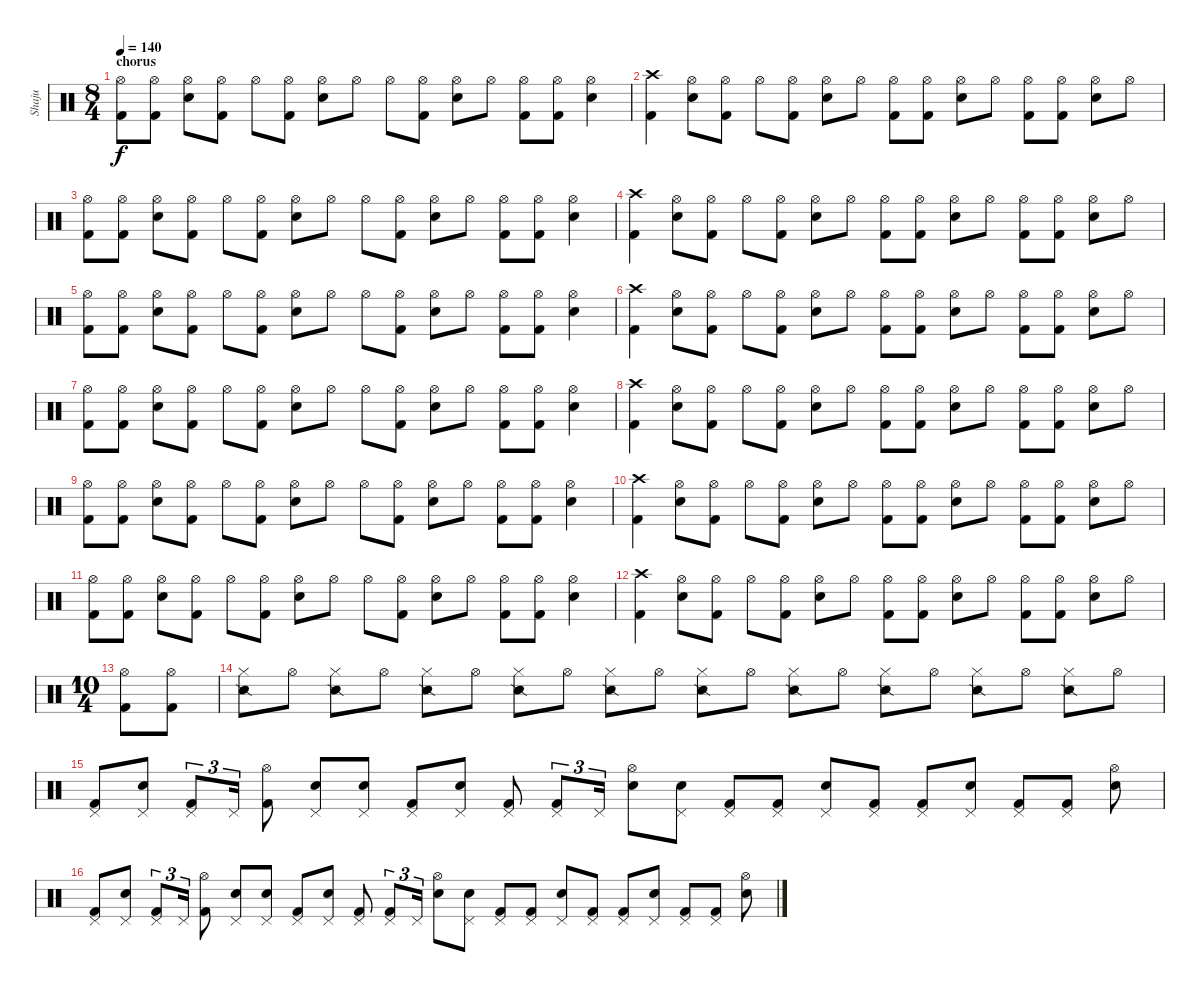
\track ("Shaju" "Shaju") {instrument percussion}
\staff {score}
\articulation defaults
\ts (8 4)
\section ("" "chorus")
\tempo 140
\clef neutral
\ks c
("Hi-Hat (open)" "Kick (hit) 2").8{dy f} ("Hi-Hat (open)" "Kick (hit) 2").8 ("Hi-Hat (open)" "Snare (hit) 2").8 ("Hi-Hat (open)" "Kick (hit) 2").8 "Hi-Hat (open)".8 ("Hi-Hat (open)" "Kick (hit) 2").8 ("Hi-Hat (open)" "Snare (hit) 2").8 "Hi-Hat (open)".8 "Hi-Hat (open)".8 ("Hi-Hat (open)" "Kick (hit) 2").8 ("Hi-Hat (open)" "Snare (hit) 2").8 "Hi-Hat (open)".8 ("Hi-Hat (open)" "Kick (hit) 2").8 ("Hi-Hat (open)" "Kick (hit) 2").8 ("Hi-Hat (open)" "Snare (hit) 2").4 |
("Crash high (hit)" "Kick (hit) 2").4 ("Hi-Hat (open)" "Snare (hit) 2").8 ("Hi-Hat (open)" "Kick (hit) 2").8 "Hi-Hat (open)".8 ("Hi-Hat (open)" "Kick (hit) 2").8 ("Hi-Hat (open)" "Snare (hit) 2").8 "Hi-Hat (open)".8 ("Hi-Hat (open)" "Kick (hit) 2").8 ("Hi-Hat (open)" "Kick (hit) 2").8 ("Hi-Hat (open)" "Snare (hit) 2").8 "Hi-Hat (open)".8 ("Hi-Hat (open)" "Kick (hit) 2").8 ("Hi-Hat (open)" "Kick (hit) 2").8 ("Hi-Hat (open)" "Snare (hit) 2").8 "Hi-Hat (open)".8 |
("Hi-Hat (open)" "Kick (hit) 2").8 ("Hi-Hat (open)" "Kick (hit) 2").8 ("Hi-Hat (open)" "Snare (hit) 2").8 ("Hi-Hat (open)" "Kick (hit) 2").8 "Hi-Hat (open)".8 ("Hi-Hat (open)" "Kick (hit) 2").8 ("Hi-Hat (open)" "Snare (hit) 2").8 "Hi-Hat (open)".8 "Hi-Hat (open)".8 ("Hi-Hat (open)" "Kick (hit) 2").8 ("Hi-Hat (open)" "Snare (hit) 2").8 "Hi-Hat (open)".8 ("Hi-Hat (open)" "Kick (hit) 2").8 ("Hi-Hat (open)" "Kick (hit) 2").8 ("Hi-Hat (open)" "Snare (hit) 2").4 |
("Crash high (hit)" "Kick (hit) 2").4 ("Hi-Hat (open)" "Snare (hit) 2").8 ("Hi-Hat (open)" "Kick (hit) 2").8 "Hi-Hat (open)".8 ("Hi-Hat (open)" "Kick (hit) 2").8 ("Hi-Hat (open)" "Snare (hit) 2").8 "Hi-Hat (open)".8 ("Hi-Hat (open)" "Kick (hit) 2").8 ("Hi-Hat (open)" "Kick (hit) 2").8 ("Hi-Hat (open)" "Snare (hit) 2").8 "Hi-Hat (open)".8 ("Hi-Hat (open)" "Kick (hit) 2").8 ("Hi-Hat (open)" "Kick (hit) 2").8 ("Hi-Hat (open)" "Snare (hit) 2").8 "Hi-Hat (open)".8 |
("Hi-Hat (open)" "Kick (hit) 2").8 ("Hi-Hat (open)" "Kick (hit) 2").8 ("Hi-Hat (open)" "Snare (hit) 2").8 ("Hi-Hat (open)" "Kick (hit) 2").8 "Hi-Hat (open)".8 ("Hi-Hat (open)" "Kick (hit) 2").8 ("Hi-Hat (open)" "Snare (hit) 2").8 "Hi-Hat (open)".8 "Hi-Hat (open)".8 ("Hi-Hat (open)" "Kick (hit) 2").8 ("Hi-Hat (open)" "Snare (hit) 2").8 "Hi-Hat (open)".8 ("Hi-Hat (open)" "Kick (hit) 2").8 ("Hi-Hat (open)" "Kick (hit) 2").8 ("Hi-Hat (open)" "Snare (hit) 2").4 |
("Crash high (hit)" "Kick (hit) 2").4 ("Hi-Hat (open)" "Snare (hit) 2").8 ("Hi-Hat (open)" "Kick (hit) 2").8 "Hi-Hat (open)".8 ("Hi-Hat (open)" "Kick (hit) 2").8 ("Hi-Hat (open)" "Snare (hit) 2").8 "Hi-Hat (open)".8 ("Hi-Hat (open)" "Kick (hit) 2").8 ("Hi-Hat (open)" "Kick (hit) 2").8 ("Hi-Hat (open)" "Snare (hit) 2").8 "Hi-Hat (open)".8 ("Hi-Hat (open)" "Kick (hit) 2").8 ("Hi-Hat (open)" "Kick (hit) 2").8 ("Hi-Hat (open)" "Snare (hit) 2").8 "Hi-Hat (open)".8 |
("Hi-Hat (open)" "Kick (hit) 2").8 ("Hi-Hat (open)" "Kick (hit) 2").8 ("Hi-Hat (open)" "Snare (hit) 2").8 ("Hi-Hat (open)" "Kick (hit) 2").8 "Hi-Hat (open)".8 ("Hi-Hat (open)" "Kick (hit) 2").8 ("Hi-Hat (open)" "Snare (hit) 2").8 "Hi-Hat (open)".8 "Hi-Hat (open)".8 ("Hi-Hat (open)" "Kick (hit) 2").8 ("Hi-Hat (open)" "Snare (hit) 2").8 "Hi-Hat (open)".8 ("Hi-Hat (open)" "Kick (hit) 2").8 ("Hi-Hat (open)" "Kick (hit) 2").8 ("Hi-Hat (open)" "Snare (hit) 2").4 |
("Crash high (hit)" "Kick (hit) 2").4 ("Hi-Hat (open)" "Snare (hit) 2").8 ("Hi-Hat (open)" "Kick (hit) 2").8 "Hi-Hat (open)".8 ("Hi-Hat (open)" "Kick (hit) 2").8 ("Hi-Hat (open)" "Snare (hit) 2").8 "Hi-Hat (open)".8 ("Hi-Hat (open)" "Kick (hit) 2").8 ("Hi-Hat (open)" "Kick (hit) 2").8 ("Hi-Hat (open)" "Snare (hit) 2").8 "Hi-Hat (open)".8 ("Hi-Hat (open)" "Kick (hit) 2").8 ("Hi-Hat (open)" "Kick (hit) 2").8 ("Hi-Hat (open)" "Snare (hit) 2").8 "Hi-Hat (open)".8 |
("Hi-Hat (open)" "Kick (hit) 2").8 ("Hi-Hat (open)" "Kick (hit) 2").8 ("Hi-Hat (open)" "Snare (hit) 2").8 ("Hi-Hat (open)" "Kick (hit) 2").8 "Hi-Hat (open)".8 ("Hi-Hat (open)" "Kick (hit) 2").8 ("Hi-Hat (open)" "Snare (hit) 2").8 "Hi-Hat (open)".8 "Hi-Hat (open)".8 ("Hi-Hat (open)" "Kick (hit) 2").8 ("Hi-Hat (open)" "Snare (hit) 2").8 "Hi-Hat (open)".8 ("Hi-Hat (open)" "Kick (hit) 2").8 ("Hi-Hat (open)" "Kick (hit) 2").8 ("Hi-Hat (open)" "Snare (hit) 2").4 |
("Crash high (hit)" "Kick (hit) 2").4 ("Hi-Hat (open)" "Snare (hit) 2").8 ("Hi-Hat (open)" "Kick (hit) 2").8 "Hi-Hat (open)".8 ("Hi-Hat (open)" "Kick (hit) 2").8 ("Hi-Hat (open)" "Snare (hit) 2").8 "Hi-Hat (open)".8 ("Hi-Hat (open)" "Kick (hit) 2").8 ("Hi-Hat (open)" "Kick (hit) 2").8 ("Hi-Hat (open)" "Snare (hit) 2").8 "Hi-Hat (open)".8 ("Hi-Hat (open)" "Kick (hit) 2").8 ("Hi-Hat (open)" "Kick (hit) 2").8 ("Hi-Hat (open)" "Snare (hit) 2").8 "Hi-Hat (open)".8 |
("Hi-Hat (open)" "Kick (hit) 2").8 ("Hi-Hat (open)" "Kick (hit) 2").8 ("Hi-Hat (open)" "Snare (hit) 2").8 ("Hi-Hat (open)" "Kick (hit) 2").8 "Hi-Hat (open)".8 ("Hi-Hat (open)" "Kick (hit) 2").8 ("Hi-Hat (open)" "Snare (hit) 2").8 "Hi-Hat (open)".8 "Hi-Hat (open)".8 ("Hi-Hat (open)" "Kick (hit) 2").8 ("Hi-Hat (open)" "Snare (hit) 2").8 "Hi-Hat (open)".8 ("Hi-Hat (open)" "Kick (hit) 2").8 ("Hi-Hat (open)" "Kick (hit) 2").8 ("Hi-Hat (open)" "Snare (hit) 2").4 |
("Crash high (hit)" "Kick (hit) 2").4 ("Hi-Hat (open)" "Snare (hit) 2").8 ("Hi-Hat (open)" "Kick (hit) 2").8 "Hi-Hat (open)".8 ("Hi-Hat (open)" "Kick (hit) 2").8 ("Hi-Hat (open)" "Snare (hit) 2").8 "Hi-Hat (open)".8 ("Hi-Hat (open)" "Kick (hit) 2").8 ("Hi-Hat (open)" "Kick (hit) 2").8 ("Hi-Hat (open)" "Snare (hit) 2").8 "Hi-Hat (open)".8 ("Hi-Hat (open)" "Kick (hit) 2").8 ("Hi-Hat (open)" "Kick (hit) 2").8 ("Hi-Hat (open)" "Snare (hit) 2").8 "Hi-Hat (open)".8 |
\ts (10 4)
("Hi-Hat (open)" "Kick (hit) 2").8 ("Hi-Hat (open)" "Kick (hit) 2").8 |
("Hi-Hat (closed)" "Snare (side stick) 2").8 "Hi-Hat (open)".8 ("Hi-Hat (closed)" "Snare (side stick) 2").8 "Hi-Hat (open)".8 ("Hi-Hat (closed)" "Snare (side stick) 2").8 "Hi-Hat (open)".8 ("Hi-Hat (closed)" "Snare (side stick) 2").8 "Hi-Hat (open)".8 ("Hi-Hat (closed)" "Snare (side stick) 2").8 "Hi-Hat (open)".8 ("Hi-Hat (closed)" "Snare (side stick) 2").8 "Hi-Hat (open)".8 ("Hi-Hat (closed)" "Snare (side stick) 2").8 "Hi-Hat (open)".8 ("Hi-Hat (closed)" "Snare (side stick) 2").8 "Hi-Hat (open)".8 ("Hi-Hat (closed)" "Snare (side stick) 2").8 "Hi-Hat (open)".8 ("Hi-Hat (closed)" "Snare (side stick) 2").8 "Hi-Hat (open)".8 |
("Pedal Hi-Hat (hit)" "Kick (hit) 2").8 ("Pedal Hi-Hat (hit)" "Snare (hit) 2").8 ("Pedal Hi-Hat (hit)" "Kick (hit) 2").8{tu (3 2)} "Pedal Hi-Hat (hit)".16{tu (3 2)} ("Hi-Hat (open)" "Kick (hit) 2").8 ("Pedal Hi-Hat (hit)" "Snare (hit) 2").8 ("Pedal Hi-Hat (hit)" "Snare (hit) 2").8 ("Pedal Hi-Hat (hit)" "Kick (hit) 2").8 ("Pedal Hi-Hat (hit)" "Snare (hit) 2").8 ("Pedal Hi-Hat (hit)" "Kick (hit) 2").8 ("Pedal Hi-Hat (hit)" "Kick (hit) 2").8{tu (3 2)} "Pedal Hi-Hat (hit)".16{tu (3 2)} ("Hi-Hat (open)" "Snare (hit) 2").8 ("Pedal Hi-Hat (hit)" "Snare (hit) 2").8 ("Pedal Hi-Hat (hit)" "Kick (hit) 2").8 ("Pedal Hi-Hat (hit)" "Kick (hit) 2").8 ("Pedal Hi-Hat (hit)" "Snare (hit) 2").8 ("Pedal Hi-Hat (hit)" "Kick (hit) 2").8 ("Pedal Hi-Hat (hit)" "Kick (hit) 2").8 ("Pedal Hi-Hat (hit)" "Snare (hit) 2").8 ("Pedal Hi-Hat (hit)" "Kick (hit) 2").8 ("Pedal Hi-Hat (hit)" "Kick (hit) 2").8 ("Hi-Hat (open)" "Snare (hit) 2").8 |
("Pedal Hi-Hat (hit)" "Kick (hit) 2").8 ("Pedal Hi-Hat (hit)" "Snare (hit) 2").8 ("Pedal Hi-Hat (hit)" "Kick (hit) 2").8{tu (3 2)} "Pedal Hi-Hat (hit)".16{tu (3 2)} ("Hi-Hat (open)" "Kick (hit) 2").8 ("Pedal Hi-Hat (hit)" "Snare (hit) 2").8 ("Pedal Hi-Hat (hit)" "Snare (hit) 2").8 ("Pedal Hi-Hat (hit)" "Kick (hit) 2").8 ("Pedal Hi-Hat (hit)" "Snare (hit) 2").8 ("Pedal Hi-Hat (hit)" "Kick (hit) 2").8 ("Pedal Hi-Hat (hit)" "Kick (hit) 2").8{tu (3 2)} "Pedal Hi-Hat (hit)".16{tu (3 2)} ("Hi-Hat (open)" "Snare (hit) 2").8 ("Pedal Hi-Hat (hit)" "Snare (hit) 2").8 ("Pedal Hi-Hat (hit)" "Kick (hit) 2").8 ("Pedal Hi-Hat (hit)" "Kick (hit) 2").8 ("Pedal Hi-Hat (hit)" "Snare (hit) 2").8 ("Pedal Hi-Hat (hit)" "Kick (hit) 2").8 ("Pedal Hi-Hat (hit)" "Kick (hit) 2").8 ("Pedal Hi-Hat (hit)" "Snare (hit) 2").8 ("Pedal Hi-Hat (hit)" "Kick (hit) 2").8 ("Pedal Hi-Hat (hit)" "Kick (hit) 2").8 ("Hi-Hat (open)" "Snare (hit) 2").8
